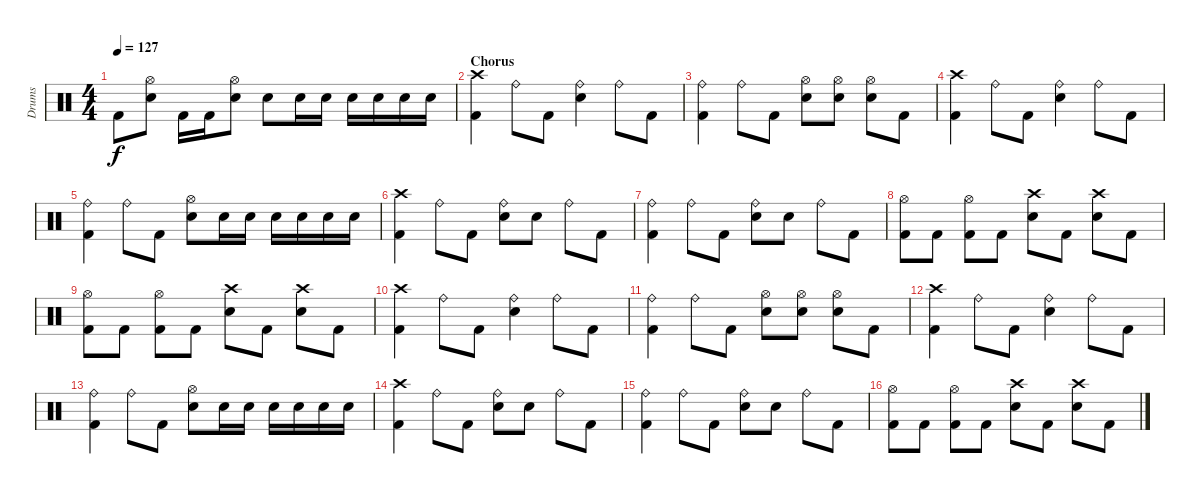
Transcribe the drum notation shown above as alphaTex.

\track ("Drums" "Drums") {instrument percussion}
\staff {score}
\articulation defaults
\ts (4 4)
\tempo 127
\clef neutral
\ks c "Kick (hit) 2".8{dy f}
("Hi-Hat (open)" "Snare (hit) 2").8 "Kick (hit) 2".16 "Kick (hit) 2".16 ("Hi-Hat (open)" "Snare (hit) 2").8 "Snare (hit) 2".8 "Snare (hit) 2".16 "Snare (hit) 2".16 "Snare (hit) 2".16 "Snare (hit) 2".16 "Snare (hit) 2".16 "Snare (hit) 2".16 |
\section ("" "Chorus")
("Crash high (hit)" "Kick (hit) 2").4 "Ride (bell)".8 "Kick (hit) 2".8 ("Ride (bell)" "Snare (hit) 2").4 "Ride (bell)".8 "Kick (hit) 2".8 |
("Ride (bell)" "Kick (hit) 2").4 "Ride (bell)".8 "Kick (hit) 2".8 ("Hi-Hat (open)" "Snare (hit) 2").8 ("Hi-Hat (open)" "Snare (hit) 2").8 ("Hi-Hat (open)" "Snare (hit) 2").8 "Kick (hit) 2".8 |
("Crash high (hit)" "Kick (hit) 2").4 "Ride (bell)".8 "Kick (hit) 2".8 ("Ride (bell)" "Snare (hit) 2").4 "Ride (bell)".8 "Kick (hit) 2".8 |
("Ride (bell)" "Kick (hit) 2").4 "Ride (bell)".8 "Kick (hit) 2".8 ("Hi-Hat (open)" "Snare (hit) 2").8 "Snare (hit) 2".16 "Snare (hit) 2".16 "Snare (hit) 2".16 "Snare (hit) 2".16 "Snare (hit) 2".16 "Snare (hit) 2".16 |
("Crash high (hit)" "Kick (hit) 2").4 "Ride (bell)".8 "Kick (hit) 2".8 ("Ride (bell)" "Snare (hit) 2").8 "Snare (hit) 2".8 "Ride (bell)".8 "Kick (hit) 2".8 |
("Ride (bell)" "Kick (hit) 2").4 "Ride (bell)".8 "Kick (hit) 2".8 ("Ride (bell)" "Snare (hit) 2").8 "Snare (hit) 2".8 "Ride (bell)".8 "Kick (hit) 2".8 |
("Hi-Hat (open)" "Kick (hit) 2").8 "Kick (hit) 2".8 ("Hi-Hat (open)" "Kick (hit) 2").8 "Kick (hit) 2".8 ("Crash high (hit)" "Snare (hit) 2").8 "Kick (hit) 2".8 ("Crash high (hit)" "Snare (hit) 2").8 "Kick (hit) 2".8 |
("Hi-Hat (open)" "Kick (hit) 2").8 "Kick (hit) 2".8 ("Hi-Hat (open)" "Kick (hit) 2").8 "Kick (hit) 2".8 ("Crash high (hit)" "Snare (hit) 2").8 "Kick (hit) 2".8 ("Crash high (hit)" "Snare (hit) 2").8 "Kick (hit) 2".8 |
("Crash high (hit)" "Kick (hit) 2").4 "Ride (bell)".8 "Kick (hit) 2".8 ("Ride (bell)" "Snare (hit) 2").4 "Ride (bell)".8 "Kick (hit) 2".8 |
("Ride (bell)" "Kick (hit) 2").4 "Ride (bell)".8 "Kick (hit) 2".8 ("Hi-Hat (open)" "Snare (hit) 2").8 ("Hi-Hat (open)" "Snare (hit) 2").8 ("Hi-Hat (open)" "Snare (hit) 2").8 "Kick (hit) 2".8 |
("Crash high (hit)" "Kick (hit) 2").4 "Ride (bell)".8 "Kick (hit) 2".8 ("Ride (bell)" "Snare (hit) 2").4 "Ride (bell)".8 "Kick (hit) 2".8 |
("Ride (bell)" "Kick (hit) 2").4 "Ride (bell)".8 "Kick (hit) 2".8 ("Hi-Hat (open)" "Snare (hit) 2").8 "Snare (hit) 2".16 "Snare (hit) 2".16 "Snare (hit) 2".16 "Snare (hit) 2".16 "Snare (hit) 2".16 "Snare (hit) 2".16 |
("Crash high (hit)" "Kick (hit) 2").4 "Ride (bell)".8 "Kick (hit) 2".8 ("Ride (bell)" "Snare (hit) 2").8 "Snare (hit) 2".8 "Ride (bell)".8 "Kick (hit) 2".8 |
("Ride (bell)" "Kick (hit) 2").4 "Ride (bell)".8 "Kick (hit) 2".8 ("Ride (bell)" "Snare (hit) 2").8 "Snare (hit) 2".8 "Ride (bell)".8 "Kick (hit) 2".8 |
("Hi-Hat (open)" "Kick (hit) 2").8 "Kick (hit) 2".8 ("Hi-Hat (open)" "Kick (hit) 2").8 "Kick (hit) 2".8 ("Crash high (hit)" "Snare (hit) 2").8 "Kick (hit) 2".8 ("Crash high (hit)" "Snare (hit) 2").8 "Kick (hit) 2".8
